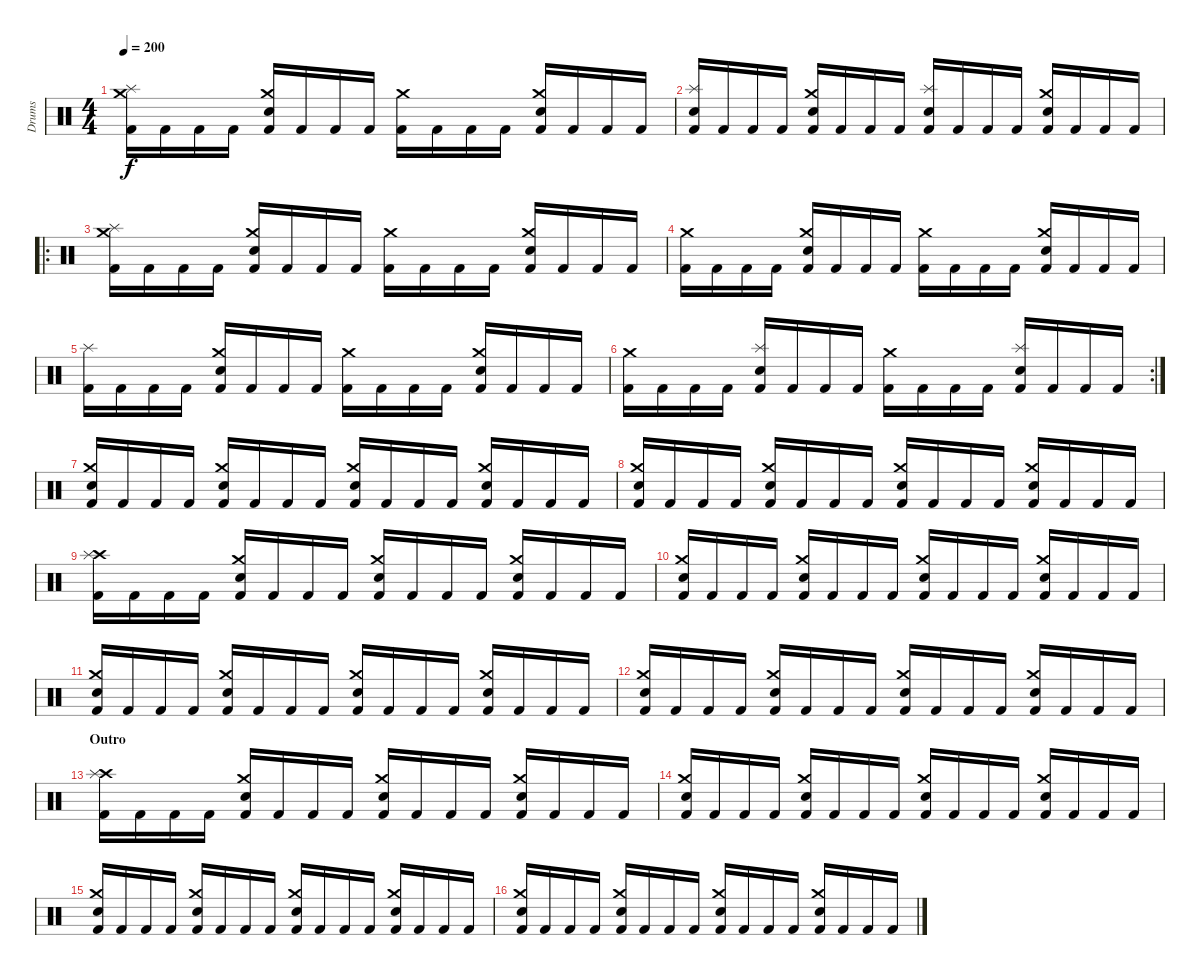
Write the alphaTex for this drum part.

\track ("Drums" "Drums") {instrument percussion}
\staff {score}
\articulation defaults
\ts (4 4)
\tempo 200
\clef neutral
\ks c
("Kick (hit) 2" "Crash medium (hit)" "Splash (hit)").16{dy f} "Kick (hit) 2".16 "Kick (hit) 2".16 "Kick (hit) 2".16 ("Kick (hit) 2" "Crash medium (hit)" "Snare (hit) 2").16 "Kick (hit) 2".16 "Kick (hit) 2".16 "Kick (hit) 2".16 ("Kick (hit) 2" "Crash medium (hit)").16 "Kick (hit) 2".16 "Kick (hit) 2".16 "Kick (hit) 2".16 ("Kick (hit) 2" "Crash medium (hit)" "Snare (hit) 2").16 "Kick (hit) 2".16 "Kick (hit) 2".16 "Kick (hit) 2".16 |
("Kick (hit) 2" "Snare (hit) 2" "Splash (hit)").16 "Kick (hit) 2".16 "Kick (hit) 2".16 "Kick (hit) 2".16 ("Kick (hit) 2" "Crash medium (hit)" "Snare (hit) 2").16 "Kick (hit) 2".16 "Kick (hit) 2".16 "Kick (hit) 2".16 ("Kick (hit) 2" "Snare (hit) 2" "Splash (hit)").16 "Kick (hit) 2".16 "Kick (hit) 2".16 "Kick (hit) 2".16 ("Kick (hit) 2" "Crash medium (hit)" "Snare (hit) 2").16 "Kick (hit) 2".16 "Kick (hit) 2".16 "Kick (hit) 2".16 |
\ro
("Kick (hit) 2" "Crash medium (hit)" "Splash (hit)").16 "Kick (hit) 2".16 "Kick (hit) 2".16 "Kick (hit) 2".16 ("Kick (hit) 2" "Crash medium (hit)" "Snare (hit) 2").16 "Kick (hit) 2".16 "Kick (hit) 2".16 "Kick (hit) 2".16 ("Kick (hit) 2" "Crash medium (hit)").16 "Kick (hit) 2".16 "Kick (hit) 2".16 "Kick (hit) 2".16 ("Kick (hit) 2" "Crash medium (hit)" "Snare (hit) 2").16 "Kick (hit) 2".16 "Kick (hit) 2".16 "Kick (hit) 2".16 |
("Kick (hit) 2" "Crash medium (hit)").16 "Kick (hit) 2".16 "Kick (hit) 2".16 "Kick (hit) 2".16 ("Kick (hit) 2" "Crash medium (hit)" "Snare (hit) 2").16 "Kick (hit) 2".16 "Kick (hit) 2".16 "Kick (hit) 2".16 ("Kick (hit) 2" "Crash medium (hit)").16 "Kick (hit) 2".16 "Kick (hit) 2".16 "Kick (hit) 2".16 ("Kick (hit) 2" "Crash medium (hit)" "Snare (hit) 2").16 "Kick (hit) 2".16 "Kick (hit) 2".16 "Kick (hit) 2".16 |
("Kick (hit) 2" "Splash (hit)").16 "Kick (hit) 2".16 "Kick (hit) 2".16 "Kick (hit) 2".16 ("Kick (hit) 2" "Crash medium (hit)" "Snare (hit) 2").16 "Kick (hit) 2".16 "Kick (hit) 2".16 "Kick (hit) 2".16 ("Kick (hit) 2" "Crash medium (hit)").16 "Kick (hit) 2".16 "Kick (hit) 2".16 "Kick (hit) 2".16 ("Kick (hit) 2" "Crash medium (hit)" "Snare (hit) 2").16 "Kick (hit) 2".16 "Kick (hit) 2".16 "Kick (hit) 2".16 |
\rc 2
("Kick (hit) 2" "Crash medium (hit)").16 "Kick (hit) 2".16 "Kick (hit) 2".16 "Kick (hit) 2".16 ("Kick (hit) 2" "Snare (hit) 2" "Splash (hit)").16 "Kick (hit) 2".16 "Kick (hit) 2".16 "Kick (hit) 2".16 ("Kick (hit) 2" "Crash medium (hit)").16 "Kick (hit) 2".16 "Kick (hit) 2".16 "Kick (hit) 2".16 ("Kick (hit) 2" "Snare (hit) 2" "Splash (hit)").16 "Kick (hit) 2".16 "Kick (hit) 2".16 "Kick (hit) 2".16 |
("Kick (hit) 2" "Crash medium (hit)" "Snare (hit) 2").16 "Kick (hit) 2".16 "Kick (hit) 2".16 "Kick (hit) 2".16 ("Kick (hit) 2" "Crash medium (hit)" "Snare (hit) 2").16 "Kick (hit) 2".16 "Kick (hit) 2".16 "Kick (hit) 2".16 ("Kick (hit) 2" "Crash medium (hit)" "Snare (hit) 2").16 "Kick (hit) 2".16 "Kick (hit) 2".16 "Kick (hit) 2".16 ("Kick (hit) 2" "Crash medium (hit)" "Snare (hit) 2").16 "Kick (hit) 2".16 "Kick (hit) 2".16 "Kick (hit) 2".16 |
("Kick (hit) 2" "Crash medium (hit)" "Snare (hit) 2").16 "Kick (hit) 2".16 "Kick (hit) 2".16 "Kick (hit) 2".16 ("Kick (hit) 2" "Crash medium (hit)" "Snare (hit) 2").16 "Kick (hit) 2".16 "Kick (hit) 2".16 "Kick (hit) 2".16 ("Kick (hit) 2" "Crash medium (hit)" "Snare (hit) 2").16 "Kick (hit) 2".16 "Kick (hit) 2".16 "Kick (hit) 2".16 ("Kick (hit) 2" "Crash medium (hit)" "Snare (hit) 2").16 "Kick (hit) 2".16 "Kick (hit) 2".16 "Kick (hit) 2".16 |
("Kick (hit) 2" "Crash high (hit)" "Splash (hit)").16 "Kick (hit) 2".16 "Kick (hit) 2".16 "Kick (hit) 2".16 ("Kick (hit) 2" "Crash medium (hit)" "Snare (hit) 2").16 "Kick (hit) 2".16 "Kick (hit) 2".16 "Kick (hit) 2".16 ("Kick (hit) 2" "Crash medium (hit)" "Snare (hit) 2").16 "Kick (hit) 2".16 "Kick (hit) 2".16 "Kick (hit) 2".16 ("Kick (hit) 2" "Crash medium (hit)" "Snare (hit) 2").16 "Kick (hit) 2".16 "Kick (hit) 2".16 "Kick (hit) 2".16 |
("Kick (hit) 2" "Crash medium (hit)" "Snare (hit) 2").16 "Kick (hit) 2".16 "Kick (hit) 2".16 "Kick (hit) 2".16 ("Kick (hit) 2" "Crash medium (hit)" "Snare (hit) 2").16 "Kick (hit) 2".16 "Kick (hit) 2".16 "Kick (hit) 2".16 ("Kick (hit) 2" "Crash medium (hit)" "Snare (hit) 2").16 "Kick (hit) 2".16 "Kick (hit) 2".16 "Kick (hit) 2".16 ("Kick (hit) 2" "Crash medium (hit)" "Snare (hit) 2").16 "Kick (hit) 2".16 "Kick (hit) 2".16 "Kick (hit) 2".16 |
("Kick (hit) 2" "Crash medium (hit)" "Snare (hit) 2").16 "Kick (hit) 2".16 "Kick (hit) 2".16 "Kick (hit) 2".16 ("Kick (hit) 2" "Crash medium (hit)" "Snare (hit) 2").16 "Kick (hit) 2".16 "Kick (hit) 2".16 "Kick (hit) 2".16 ("Kick (hit) 2" "Crash medium (hit)" "Snare (hit) 2").16 "Kick (hit) 2".16 "Kick (hit) 2".16 "Kick (hit) 2".16 ("Kick (hit) 2" "Crash medium (hit)" "Snare (hit) 2").16 "Kick (hit) 2".16 "Kick (hit) 2".16 "Kick (hit) 2".16 |
("Kick (hit) 2" "Crash medium (hit)" "Snare (hit) 2").16 "Kick (hit) 2".16 "Kick (hit) 2".16 "Kick (hit) 2".16 ("Kick (hit) 2" "Crash medium (hit)" "Snare (hit) 2").16 "Kick (hit) 2".16 "Kick (hit) 2".16 "Kick (hit) 2".16 ("Kick (hit) 2" "Crash medium (hit)" "Snare (hit) 2").16 "Kick (hit) 2".16 "Kick (hit) 2".16 "Kick (hit) 2".16 ("Kick (hit) 2" "Crash medium (hit)" "Snare (hit) 2").16 "Kick (hit) 2".16 "Kick (hit) 2".16 "Kick (hit) 2".16 |
\section ("" "Outro")
("Kick (hit) 2" "Crash high (hit)" "Splash (hit)").16 "Kick (hit) 2".16 "Kick (hit) 2".16 "Kick (hit) 2".16 ("Kick (hit) 2" "Crash medium (hit)" "Snare (hit) 2").16 "Kick (hit) 2".16 "Kick (hit) 2".16 "Kick (hit) 2".16 ("Kick (hit) 2" "Crash medium (hit)" "Snare (hit) 2").16 "Kick (hit) 2".16 "Kick (hit) 2".16 "Kick (hit) 2".16 ("Kick (hit) 2" "Crash medium (hit)" "Snare (hit) 2").16 "Kick (hit) 2".16 "Kick (hit) 2".16 "Kick (hit) 2".16 |
("Kick (hit) 2" "Crash medium (hit)" "Snare (hit) 2").16 "Kick (hit) 2".16 "Kick (hit) 2".16 "Kick (hit) 2".16 ("Kick (hit) 2" "Crash medium (hit)" "Snare (hit) 2").16 "Kick (hit) 2".16 "Kick (hit) 2".16 "Kick (hit) 2".16 ("Kick (hit) 2" "Crash medium (hit)" "Snare (hit) 2").16 "Kick (hit) 2".16 "Kick (hit) 2".16 "Kick (hit) 2".16 ("Kick (hit) 2" "Crash medium (hit)" "Snare (hit) 2").16 "Kick (hit) 2".16 "Kick (hit) 2".16 "Kick (hit) 2".16 |
("Kick (hit) 2" "Crash medium (hit)" "Snare (hit) 2").16 "Kick (hit) 2".16 "Kick (hit) 2".16 "Kick (hit) 2".16 ("Kick (hit) 2" "Crash medium (hit)" "Snare (hit) 2").16 "Kick (hit) 2".16 "Kick (hit) 2".16 "Kick (hit) 2".16 ("Kick (hit) 2" "Crash medium (hit)" "Snare (hit) 2").16 "Kick (hit) 2".16 "Kick (hit) 2".16 "Kick (hit) 2".16 ("Kick (hit) 2" "Crash medium (hit)" "Snare (hit) 2").16 "Kick (hit) 2".16 "Kick (hit) 2".16 "Kick (hit) 2".16 |
("Kick (hit) 2" "Crash medium (hit)" "Snare (hit) 2").16 "Kick (hit) 2".16 "Kick (hit) 2".16 "Kick (hit) 2".16 ("Kick (hit) 2" "Crash medium (hit)" "Snare (hit) 2").16 "Kick (hit) 2".16 "Kick (hit) 2".16 "Kick (hit) 2".16 ("Kick (hit) 2" "Crash medium (hit)" "Snare (hit) 2").16 "Kick (hit) 2".16 "Kick (hit) 2".16 "Kick (hit) 2".16 ("Kick (hit) 2" "Crash medium (hit)" "Snare (hit) 2").16 "Kick (hit) 2".16 "Kick (hit) 2".16 "Kick (hit) 2".16
